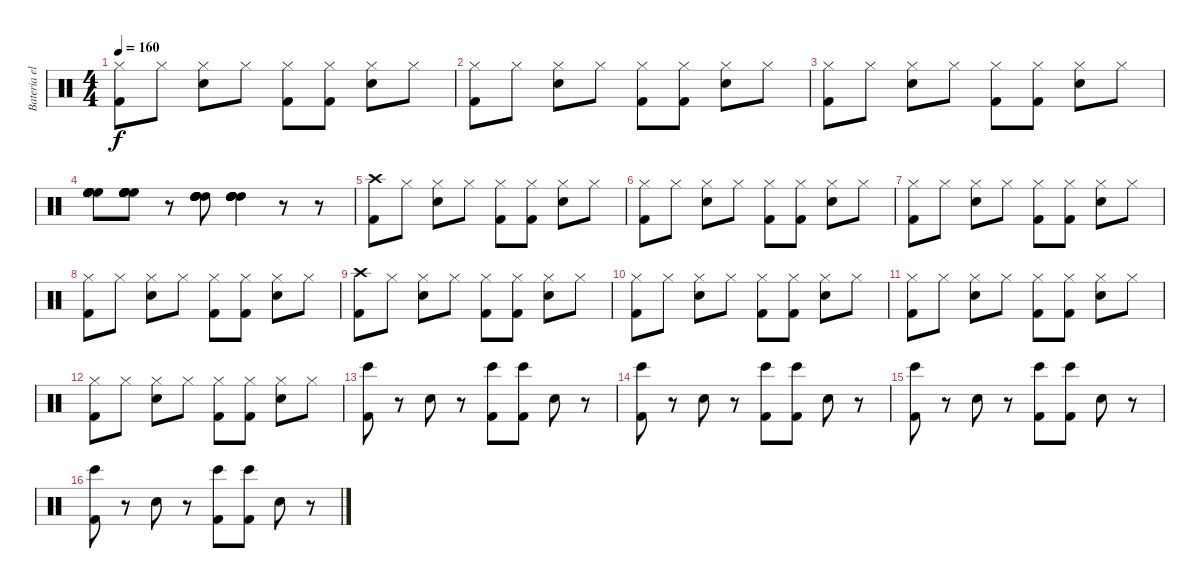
\track ("Bateria electrica" "Bateria el") {instrument percussion}
\staff {score}
\articulation defaults
\ts (4 4)
\tempo 160
\clef neutral
\ks c
("Hi-Hat (closed)" "Kick (hit) 2").8{dy f} "Hi-Hat (closed)".8 ("Hi-Hat (closed)" "Snare (hit) 2").8 "Hi-Hat (closed)".8 ("Hi-Hat (closed)" "Kick (hit) 2").8 ("Hi-Hat (closed)" "Kick (hit) 2").8 ("Hi-Hat (closed)" "Snare (hit) 2").8 "Hi-Hat (closed)".8 |
("Hi-Hat (closed)" "Kick (hit) 2").8 "Hi-Hat (closed)".8 ("Hi-Hat (closed)" "Snare (hit) 2").8 "Hi-Hat (closed)".8 ("Hi-Hat (closed)" "Kick (hit) 2").8 ("Hi-Hat (closed)" "Kick (hit) 2").8 ("Hi-Hat (closed)" "Snare (hit) 2").8 "Hi-Hat (closed)".8 |
("Hi-Hat (closed)" "Kick (hit) 2").8 "Hi-Hat (closed)".8 ("Hi-Hat (closed)" "Snare (hit) 2").8 "Hi-Hat (closed)".8 ("Hi-Hat (closed)" "Kick (hit) 2").8 ("Hi-Hat (closed)" "Kick (hit) 2").8 ("Hi-Hat (closed)" "Snare (hit) 2").8 "Hi-Hat (closed)".8 |
("High Floor Tom (hit)" "High Floor Tom (hit)" "High Floor Tom (hit)" "High Floor Tom (hit)" "High Floor Tom (hit)" "High Floor Tom (hit)").8 ("High Floor Tom (hit)" "High Floor Tom (hit)" "High Floor Tom (hit)" "High Floor Tom (hit)" "High Floor Tom (hit)" "High Floor Tom (hit)").8 r.8 ("High Tom (hit)" "High Tom (hit)" "High Tom (hit)" "High Tom (hit)" "High Tom (hit)" "High Tom (hit)").8 ("High Tom (hit)" "High Tom (hit)" "High Tom (hit)" "High Tom (hit)" "High Tom (hit)" "High Tom (hit)").4 r.8 r.8 |
("Crash high (hit)" "Kick (hit) 2").8 "Hi-Hat (closed)".8 ("Hi-Hat (closed)" "Snare (hit) 2").8 "Hi-Hat (closed)".8 ("Hi-Hat (closed)" "Kick (hit) 2").8 ("Hi-Hat (closed)" "Kick (hit) 2").8 ("Hi-Hat (closed)" "Snare (hit) 2").8 "Hi-Hat (closed)".8 |
("Hi-Hat (closed)" "Kick (hit) 2").8 "Hi-Hat (closed)".8 ("Hi-Hat (closed)" "Snare (hit) 2").8 "Hi-Hat (closed)".8 ("Hi-Hat (closed)" "Kick (hit) 2").8 ("Hi-Hat (closed)" "Kick (hit) 2").8 ("Hi-Hat (closed)" "Snare (hit) 2").8 "Hi-Hat (closed)".8 |
("Hi-Hat (closed)" "Kick (hit) 2").8 "Hi-Hat (closed)".8 ("Hi-Hat (closed)" "Snare (hit) 2").8 "Hi-Hat (closed)".8 ("Hi-Hat (closed)" "Kick (hit) 2").8 ("Hi-Hat (closed)" "Kick (hit) 2").8 ("Hi-Hat (closed)" "Snare (hit) 2").8 "Hi-Hat (closed)".8 |
("Hi-Hat (closed)" "Kick (hit) 2").8 "Hi-Hat (closed)".8 ("Hi-Hat (closed)" "Snare (hit) 2").8 "Hi-Hat (closed)".8 ("Hi-Hat (closed)" "Kick (hit) 2").8 ("Hi-Hat (closed)" "Kick (hit) 2").8 ("Hi-Hat (closed)" "Snare (hit) 2").8 "Hi-Hat (closed)".8 |
("Crash high (hit)" "Kick (hit) 2").8 "Hi-Hat (closed)".8 ("Hi-Hat (closed)" "Snare (hit) 2").8 "Hi-Hat (closed)".8 ("Hi-Hat (closed)" "Kick (hit) 2").8 ("Hi-Hat (closed)" "Kick (hit) 2").8 ("Hi-Hat (closed)" "Snare (hit) 2").8 "Hi-Hat (closed)".8 |
("Hi-Hat (closed)" "Kick (hit) 2").8 "Hi-Hat (closed)".8 ("Hi-Hat (closed)" "Snare (hit) 2").8 "Hi-Hat (closed)".8 ("Hi-Hat (closed)" "Kick (hit) 2").8 ("Hi-Hat (closed)" "Kick (hit) 2").8 ("Hi-Hat (closed)" "Snare (hit) 2").8 "Hi-Hat (closed)".8 |
("Hi-Hat (closed)" "Kick (hit) 2").8 "Hi-Hat (closed)".8 ("Hi-Hat (closed)" "Snare (hit) 2").8 "Hi-Hat (closed)".8 ("Hi-Hat (closed)" "Kick (hit) 2").8 ("Hi-Hat (closed)" "Kick (hit) 2").8 ("Hi-Hat (closed)" "Snare (hit) 2").8 "Hi-Hat (closed)".8 |
("Hi-Hat (closed)" "Kick (hit) 2").8 "Hi-Hat (closed)".8 ("Hi-Hat (closed)" "Snare (hit) 2").8 "Hi-Hat (closed)".8 ("Hi-Hat (closed)" "Kick (hit) 2").8 ("Hi-Hat (closed)" "Kick (hit) 2").8 ("Hi-Hat (closed)" "Snare (hit) 2").8 "Hi-Hat (closed)".8 |
("Bongo High (hit)" "Kick (hit) 2").8 r.8 "Snare (hit) 2".8 r.8 ("Bongo High (hit)" "Kick (hit) 2").8 ("Bongo High (hit)" "Kick (hit) 2").8 "Snare (hit) 2".8 r.8 |
("Bongo High (hit)" "Kick (hit) 2").8 r.8 "Snare (hit) 2".8 r.8 ("Bongo High (hit)" "Kick (hit) 2").8 ("Bongo High (hit)" "Kick (hit) 2").8 "Snare (hit) 2".8 r.8 |
("Bongo High (hit)" "Kick (hit) 2").8 r.8 "Snare (hit) 2".8 r.8 ("Bongo High (hit)" "Kick (hit) 2").8 ("Bongo High (hit)" "Kick (hit) 2").8 "Snare (hit) 2".8 r.8 |
("Bongo High (hit)" "Kick (hit) 2").8 r.8 "Snare (hit) 2".8 r.8 ("Bongo High (hit)" "Kick (hit) 2").8 ("Bongo High (hit)" "Kick (hit) 2").8 "Snare (hit) 2".8 r.8
